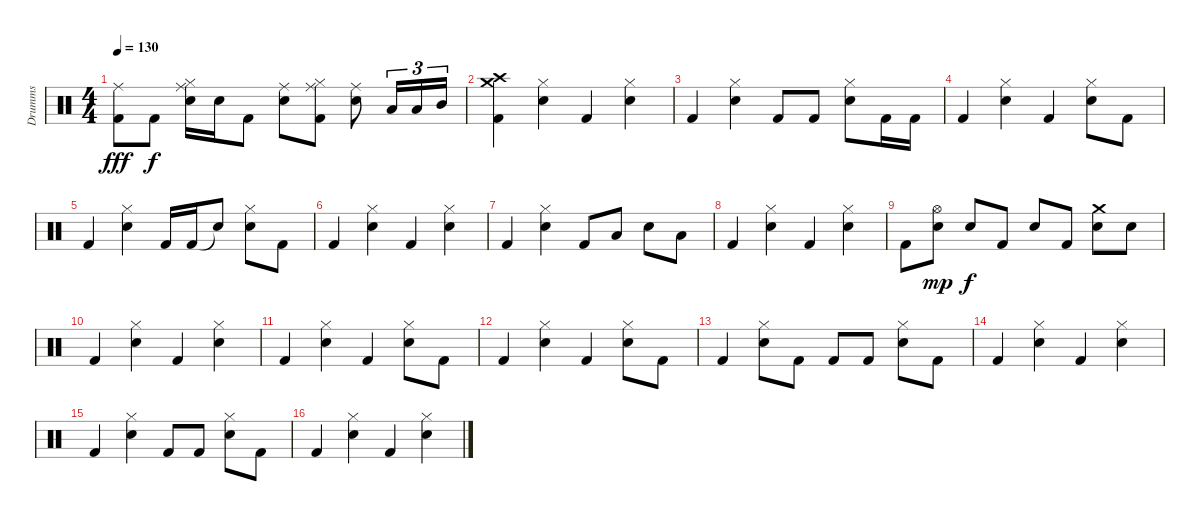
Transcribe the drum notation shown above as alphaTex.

\track ("Drumms" "Drumms") {instrument percussion}
\staff {score}
\articulation defaults
\ts (4 4)
\tempo 130
\clef neutral
\ks c
("Ride (middle)" "Kick (hit) 2").8{dy fff} "Kick (hit) 2".8{dy f} ("Ride (middle)" "Hi-Hat (closed)" "Electric Snare (hit)").16 "Electric Snare (hit)".16 "Kick (hit) 2".8 ("Ride (middle)" "Electric Snare (hit)").8 ("Ride (middle)" "Hi-Hat (closed)" "Kick (hit) 2").8 ("Ride (middle)" "Electric Snare (hit)").8 "Low Tom (hit)".16{tu (3 2)} "Low Tom (hit)".16{tu (3 2)} "Mid Tom (hit)".16{tu (3 2)} |
("Crash medium (hit)" "Crash high (hit)" "Kick (hit) 2").4 ("Hi-Hat (closed)" "Electric Snare (hit)").4 "Kick (hit) 2".4 ("Hi-Hat (closed)" "Electric Snare (hit)").4 |
"Kick (hit) 2".4 ("Hi-Hat (closed)" "Electric Snare (hit)").4 "Kick (hit) 2".8 "Kick (hit) 2".8 ("Hi-Hat (closed)" "Electric Snare (hit)").8 "Kick (hit) 2".16 "Kick (hit) 2".16 |
"Kick (hit) 2".4 ("Hi-Hat (closed)" "Electric Snare (hit)").4 "Kick (hit) 2".4 ("Hi-Hat (closed)" "Electric Snare (hit)").8 "Kick (hit) 2".8 |
"Kick (hit) 2".4 ("Hi-Hat (closed)" "Electric Snare (hit)").4 "Kick (hit) 2".16 "Kick (hit) 2".16 "Snare (hit)"{t}.8 ("Hi-Hat (closed)" "Electric Snare (hit)").8 "Kick (hit) 2".8 |
\section ("" "")
"Kick (hit) 2".4 ("Hi-Hat (closed)" "Electric Snare (hit)").4 "Kick (hit) 2".4 ("Hi-Hat (closed)" "Electric Snare (hit)").4 |
"Kick (hit) 2".4 ("Hi-Hat (closed)" "Electric Snare (hit)").4 "Kick (hit) 2".8 "Low Tom (hit)".8 "Electric Snare (hit)".8 "Low Tom (hit)".8 |
"Kick (hit) 2".4 ("Hi-Hat (closed)" "Electric Snare (hit)").4 "Kick (hit) 2".4 ("Hi-Hat (closed)" "Electric Snare (hit)").4 |
"Kick (hit) 2".8 ("Hi-Hat (open)" "Electric Snare (hit)").8{dy mp} "Electric Snare (hit)".8{dy f} "Kick (hit) 2".8 "Electric Snare (hit)".8 "Kick (hit) 2".8 ("Crash medium (hit)" "Electric Snare (hit)").8 "Electric Snare (hit)".8 |
"Kick (hit) 2".4 ("Hi-Hat (closed)" "Electric Snare (hit)").4 "Kick (hit) 2".4 ("Hi-Hat (closed)" "Electric Snare (hit)").4 |
"Kick (hit) 2".4 ("Hi-Hat (closed)" "Electric Snare (hit)").4 "Kick (hit) 2".4 ("Hi-Hat (closed)" "Electric Snare (hit)").8 "Kick (hit) 2".8 |
"Kick (hit) 2".4 ("Hi-Hat (closed)" "Electric Snare (hit)").4 "Kick (hit) 2".4 ("Hi-Hat (closed)" "Electric Snare (hit)").8 "Kick (hit) 2".8 |
"Kick (hit) 2".4 ("Hi-Hat (closed)" "Electric Snare (hit)").8 "Kick (hit) 2".8 "Kick (hit) 2".8 "Kick (hit) 2".8 ("Hi-Hat (closed)" "Electric Snare (hit)").8 "Kick (hit) 2".8 |
"Kick (hit) 2".4 ("Hi-Hat (closed)" "Electric Snare (hit)").4 "Kick (hit) 2".4 ("Hi-Hat (closed)" "Electric Snare (hit)").4 |
"Kick (hit) 2".4 ("Hi-Hat (closed)" "Electric Snare (hit)").4 "Kick (hit) 2".8 "Kick (hit) 2".8 ("Hi-Hat (closed)" "Electric Snare (hit)").8 "Kick (hit) 2".8 |
"Kick (hit) 2".4 ("Hi-Hat (closed)" "Electric Snare (hit)").4 "Kick (hit) 2".4 ("Hi-Hat (closed)" "Electric Snare (hit)").4
